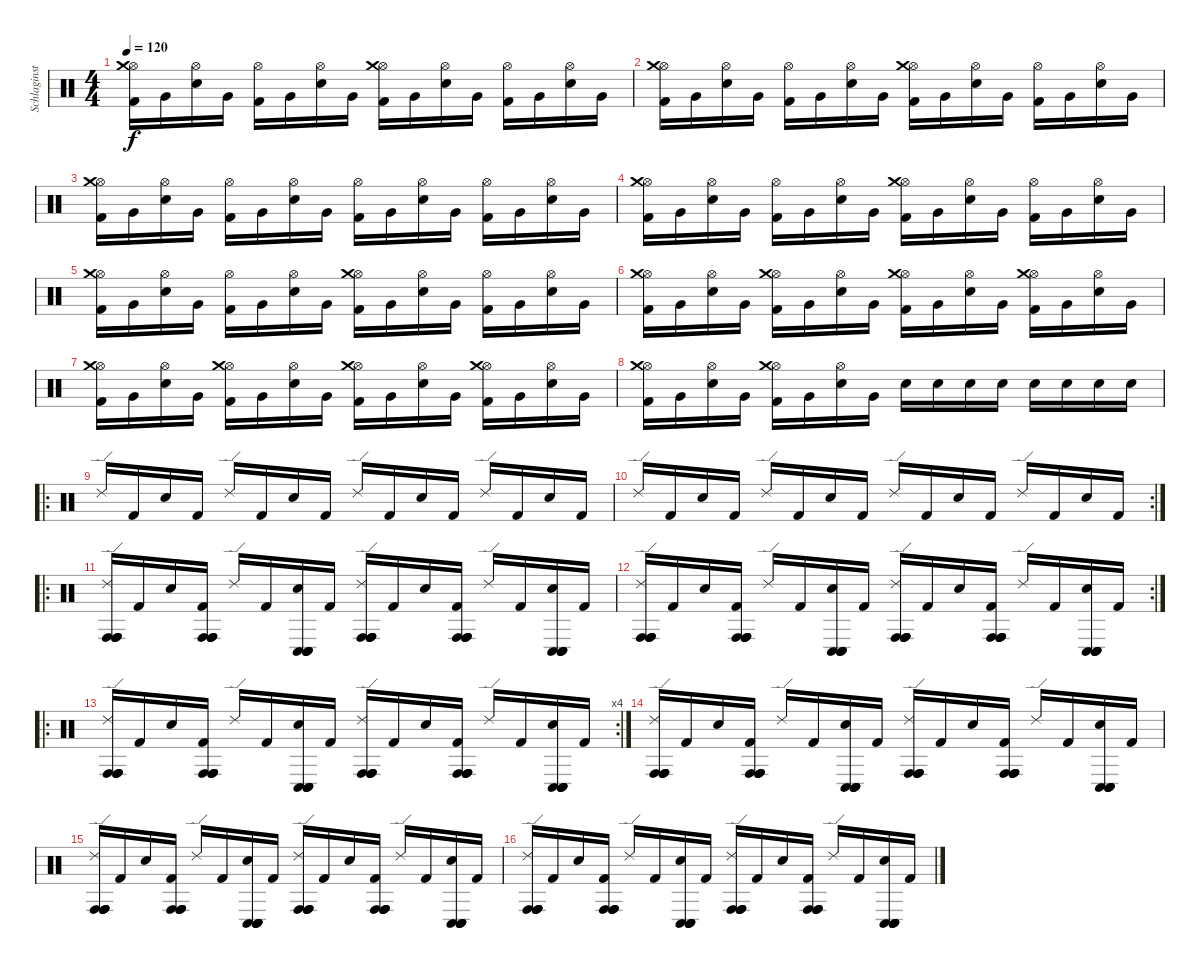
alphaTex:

\track ("Schlaginstrumente - Auswahl" "Schlaginst") {instrument percussion}
\staff {score}
\articulation defaults
\ts (4 4)
\tempo 120
\clef neutral
\ks c
("Kick (hit) 2" "Hi-Hat (open)" "Crash medium (hit)").16{dy f} "Very Low Tom (hit)".16 ("Electric Snare (hit)" "Hi-Hat (open)").16 "Very Low Tom (hit)".16 ("Kick (hit) 2" "Hi-Hat (open)").16 "Very Low Tom (hit)".16 ("Electric Snare (hit)" "Hi-Hat (open)").16 "Very Low Tom (hit)".16 ("Kick (hit) 2" "Hi-Hat (open)" "Crash medium (hit)").16 "Very Low Tom (hit)".16 ("Electric Snare (hit)" "Hi-Hat (open)").16 "Very Low Tom (hit)".16 ("Kick (hit) 2" "Hi-Hat (open)").16 "Very Low Tom (hit)".16 ("Electric Snare (hit)" "Hi-Hat (open)").16 "Very Low Tom (hit)".16 |
("Kick (hit) 2" "Hi-Hat (open)" "Crash medium (hit)").16 "Very Low Tom (hit)".16 ("Electric Snare (hit)" "Hi-Hat (open)").16 "Very Low Tom (hit)".16 ("Kick (hit) 2" "Hi-Hat (open)").16 "Very Low Tom (hit)".16 ("Electric Snare (hit)" "Hi-Hat (open)").16 "Very Low Tom (hit)".16 ("Kick (hit) 2" "Hi-Hat (open)" "Crash medium (hit)").16 "Very Low Tom (hit)".16 ("Electric Snare (hit)" "Hi-Hat (open)").16 "Very Low Tom (hit)".16 ("Kick (hit) 2" "Hi-Hat (open)").16 "Very Low Tom (hit)".16 ("Electric Snare (hit)" "Hi-Hat (open)").16 "Very Low Tom (hit)".16 |
("Kick (hit) 2" "Hi-Hat (open)" "Crash medium (hit)").16 "Very Low Tom (hit)".16 ("Electric Snare (hit)" "Hi-Hat (open)").16 "Very Low Tom (hit)".16 ("Kick (hit) 2" "Hi-Hat (open)").16 "Very Low Tom (hit)".16 ("Electric Snare (hit)" "Hi-Hat (open)").16 "Very Low Tom (hit)".16 ("Kick (hit) 2" "Hi-Hat (open)").16 "Very Low Tom (hit)".16 ("Electric Snare (hit)" "Hi-Hat (open)").16 "Very Low Tom (hit)".16 ("Kick (hit) 2" "Hi-Hat (open)").16 "Very Low Tom (hit)".16 ("Electric Snare (hit)" "Hi-Hat (open)").16 "Very Low Tom (hit)".16 |
("Kick (hit) 2" "Hi-Hat (open)" "Crash medium (hit)").16 "Very Low Tom (hit)".16 ("Electric Snare (hit)" "Hi-Hat (open)").16 "Very Low Tom (hit)".16 ("Kick (hit) 2" "Hi-Hat (open)").16 "Very Low Tom (hit)".16 ("Electric Snare (hit)" "Hi-Hat (open)").16 "Very Low Tom (hit)".16 ("Kick (hit) 2" "Hi-Hat (open)" "Crash medium (hit)").16 "Very Low Tom (hit)".16 ("Electric Snare (hit)" "Hi-Hat (open)").16 "Very Low Tom (hit)".16 ("Kick (hit) 2" "Hi-Hat (open)").16 "Very Low Tom (hit)".16 ("Electric Snare (hit)" "Hi-Hat (open)").16 "Very Low Tom (hit)".16 |
("Kick (hit) 2" "Hi-Hat (open)" "Crash medium (hit)").16 "Very Low Tom (hit)".16 ("Electric Snare (hit)" "Hi-Hat (open)").16 "Very Low Tom (hit)".16 ("Kick (hit) 2" "Hi-Hat (open)").16 "Very Low Tom (hit)".16 ("Electric Snare (hit)" "Hi-Hat (open)").16 "Very Low Tom (hit)".16 ("Kick (hit) 2" "Hi-Hat (open)" "Crash medium (hit)").16 "Very Low Tom (hit)".16 ("Electric Snare (hit)" "Hi-Hat (open)").16 "Very Low Tom (hit)".16 ("Kick (hit) 2" "Hi-Hat (open)").16 "Very Low Tom (hit)".16 ("Electric Snare (hit)" "Hi-Hat (open)").16 "Very Low Tom (hit)".16 |
("Kick (hit) 2" "Hi-Hat (open)" "Crash medium (hit)").16 "Very Low Tom (hit)".16 ("Electric Snare (hit)" "Hi-Hat (open)").16 "Very Low Tom (hit)".16 ("Kick (hit) 2" "Hi-Hat (open)" "Crash medium (hit)").16 "Very Low Tom (hit)".16 ("Electric Snare (hit)" "Hi-Hat (open)").16 "Very Low Tom (hit)".16 ("Kick (hit) 2" "Hi-Hat (open)" "Crash medium (hit)").16 "Very Low Tom (hit)".16 ("Electric Snare (hit)" "Hi-Hat (open)").16 "Very Low Tom (hit)".16 ("Kick (hit) 2" "Hi-Hat (open)" "Crash medium (hit)").16 "Very Low Tom (hit)".16 ("Electric Snare (hit)" "Hi-Hat (open)").16 "Very Low Tom (hit)".16 |
("Kick (hit) 2" "Hi-Hat (open)" "Crash medium (hit)").16 "Very Low Tom (hit)".16 ("Electric Snare (hit)" "Hi-Hat (open)").16 "Very Low Tom (hit)".16 ("Kick (hit) 2" "Hi-Hat (open)" "Crash medium (hit)").16 "Very Low Tom (hit)".16 ("Electric Snare (hit)" "Hi-Hat (open)").16 "Very Low Tom (hit)".16 ("Kick (hit) 2" "Hi-Hat (open)" "Crash medium (hit)").16 "Very Low Tom (hit)".16 ("Electric Snare (hit)" "Hi-Hat (open)").16 "Very Low Tom (hit)".16 ("Kick (hit) 2" "Hi-Hat (open)" "Crash medium (hit)").16 "Very Low Tom (hit)".16 ("Electric Snare (hit)" "Hi-Hat (open)").16 "Very Low Tom (hit)".16 |
("Kick (hit) 2" "Hi-Hat (open)" "Crash medium (hit)").16 "Very Low Tom (hit)".16 ("Electric Snare (hit)" "Hi-Hat (open)").16 "Very Low Tom (hit)".16 ("Kick (hit) 2" "Hi-Hat (open)" "Crash medium (hit)").16 "Very Low Tom (hit)".16 ("Electric Snare (hit)" "Hi-Hat (open)").16 "Very Low Tom (hit)".16 "Electric Snare (hit)".16 "Electric Snare (hit)".16 "Electric Snare (hit)".16 "Electric Snare (hit)".16 "Electric Snare (hit)".16 "Electric Snare (hit)".16 "Electric Snare (hit)".16 "Electric Snare (hit)".16 |
\ro "Ride (edge) 2".16 "Kick (hit) 2".16 "Electric Snare (hit)".16 "Kick (hit) 2".16 "Ride (edge) 2".16 "Kick (hit) 2".16 "Electric Snare (hit)".16 "Kick (hit) 2".16 "Ride (edge) 2".16 "Kick (hit) 2".16 "Electric Snare (hit)".16 "Kick (hit) 2".16 "Ride (edge) 2".16 "Kick (hit) 2".16 "Electric Snare (hit)".16 "Kick (hit) 2".16
|
\rc 2 "Ride (edge) 2".16 "Kick (hit) 2".16 "Electric Snare (hit)".16 "Kick (hit) 2".16 "Ride (edge) 2".16 "Kick (hit) 2".16 "Electric Snare (hit)".16 "Kick (hit) 2".16 "Ride (edge) 2".16 "Kick (hit) 2".16 "Electric Snare (hit)".16 "Kick (hit) 2".16 "Ride (edge) 2".16 "Kick (hit) 2".16 "Electric Snare (hit)".16 "Kick (hit) 2".16
|
\ro
("Conga high (hit)" "Ride (edge) 2" "Conga high (hit)" "Conga high (hit)" "Conga high (hit)").16 "Kick (hit) 2".16 "Electric Snare (hit)".16 ("Kick (hit) 2" "Conga high (hit)" "Conga high (hit)" "Conga high (hit)" "Conga high (hit)").16 "Ride (edge) 2".16 "Kick (hit) 2".16 ("Electric Snare (hit)" "Conga low (hit)" "Conga low (hit)" "Conga low (hit)" "Conga low (hit)").16 "Kick (hit) 2".16 ("Conga high (hit)" "Ride (edge) 2" "Conga high (hit)" "Conga high (hit)" "Conga high (hit)").16 "Kick (hit) 2".16 "Electric Snare (hit)".16 ("Kick (hit) 2" "Conga high (hit)" "Conga high (hit)" "Conga high (hit)" "Conga high (hit)").16 "Ride (edge) 2".16 "Kick (hit) 2".16 ("Electric Snare (hit)" "Conga low (hit)" "Conga low (hit)" "Conga low (hit)" "Conga low (hit)").16 "Kick (hit) 2".16 |
\rc 2
("Conga high (hit)" "Ride (edge) 2" "Conga high (hit)" "Conga high (hit)" "Conga high (hit)").16 "Kick (hit) 2".16 "Electric Snare (hit)".16 ("Kick (hit) 2" "Conga high (hit)" "Conga high (hit)" "Conga high (hit)" "Conga high (hit)").16 "Ride (edge) 2".16 "Kick (hit) 2".16 ("Electric Snare (hit)" "Conga low (hit)" "Conga low (hit)" "Conga low (hit)" "Conga low (hit)").16 "Kick (hit) 2".16 ("Conga high (hit)" "Ride (edge) 2" "Conga high (hit)" "Conga high (hit)" "Conga high (hit)").16 "Kick (hit) 2".16 "Electric Snare (hit)".16 ("Kick (hit) 2" "Conga high (hit)" "Conga high (hit)" "Conga high (hit)" "Conga high (hit)").16 "Ride (edge) 2".16 "Kick (hit) 2".16 ("Electric Snare (hit)" "Conga low (hit)" "Conga low (hit)" "Conga low (hit)" "Conga low (hit)").16 "Kick (hit) 2".16 |
\ro
\rc 4
("Conga high (hit)" "Ride (edge) 2" "Conga high (hit)" "Conga high (hit)" "Conga high (hit)").16 "Kick (hit) 2".16 "Electric Snare (hit)".16 ("Kick (hit) 2" "Conga high (hit)" "Conga high (hit)" "Conga high (hit)" "Conga high (hit)").16 "Ride (edge) 2".16 "Kick (hit) 2".16 ("Electric Snare (hit)" "Conga low (hit)" "Conga low (hit)" "Conga low (hit)" "Conga low (hit)").16 "Kick (hit) 2".16 ("Conga high (hit)" "Ride (edge) 2" "Conga high (hit)" "Conga high (hit)" "Conga high (hit)").16 "Kick (hit) 2".16 "Electric Snare (hit)".16 ("Kick (hit) 2" "Conga high (hit)" "Conga high (hit)" "Conga high (hit)" "Conga high (hit)").16 "Ride (edge) 2".16 "Kick (hit) 2".16 ("Electric Snare (hit)" "Conga low (hit)" "Conga low (hit)" "Conga low (hit)" "Conga low (hit)").16 "Kick (hit) 2".16 |
("Conga high (hit)" "Ride (edge) 2" "Conga high (hit)" "Conga high (hit)" "Conga high (hit)").16 "Kick (hit) 2".16 "Electric Snare (hit)".16 ("Kick (hit) 2" "Conga high (hit)" "Conga high (hit)" "Conga high (hit)" "Conga high (hit)").16 "Ride (edge) 2".16 "Kick (hit) 2".16 ("Electric Snare (hit)" "Conga low (hit)" "Conga low (hit)" "Conga low (hit)" "Conga low (hit)").16 "Kick (hit) 2".16 ("Conga high (hit)" "Ride (edge) 2" "Conga high (hit)" "Conga high (hit)" "Conga high (hit)").16 "Kick (hit) 2".16 "Electric Snare (hit)".16 ("Kick (hit) 2" "Conga high (hit)" "Conga high (hit)" "Conga high (hit)" "Conga high (hit)").16 "Ride (edge) 2".16 "Kick (hit) 2".16 ("Electric Snare (hit)" "Conga low (hit)" "Conga low (hit)" "Conga low (hit)" "Conga low (hit)").16 "Kick (hit) 2".16 |
("Conga high (hit)" "Ride (edge) 2" "Conga high (hit)" "Conga high (hit)" "Conga high (hit)").16 "Kick (hit) 2".16 "Electric Snare (hit)".16 ("Kick (hit) 2" "Conga high (hit)" "Conga high (hit)" "Conga high (hit)" "Conga high (hit)").16 "Ride (edge) 2".16 "Kick (hit) 2".16 ("Electric Snare (hit)" "Conga low (hit)" "Conga low (hit)" "Conga low (hit)" "Conga low (hit)").16 "Kick (hit) 2".16 ("Conga high (hit)" "Ride (edge) 2" "Conga high (hit)" "Conga high (hit)" "Conga high (hit)").16 "Kick (hit) 2".16 "Electric Snare (hit)".16 ("Kick (hit) 2" "Conga high (hit)" "Conga high (hit)" "Conga high (hit)" "Conga high (hit)").16 "Ride (edge) 2".16 "Kick (hit) 2".16 ("Electric Snare (hit)" "Conga low (hit)" "Conga low (hit)" "Conga low (hit)" "Conga low (hit)").16 "Kick (hit) 2".16 |
("Conga high (hit)" "Ride (edge) 2" "Conga high (hit)" "Conga high (hit)" "Conga high (hit)").16 "Kick (hit) 2".16 "Electric Snare (hit)".16 ("Kick (hit) 2" "Conga high (hit)" "Conga high (hit)" "Conga high (hit)" "Conga high (hit)").16 "Ride (edge) 2".16 "Kick (hit) 2".16 ("Electric Snare (hit)" "Conga low (hit)" "Conga low (hit)" "Conga low (hit)" "Conga low (hit)").16 "Kick (hit) 2".16 ("Conga high (hit)" "Ride (edge) 2" "Conga high (hit)" "Conga high (hit)" "Conga high (hit)").16 "Kick (hit) 2".16 "Electric Snare (hit)".16 ("Kick (hit) 2" "Conga high (hit)" "Conga high (hit)" "Conga high (hit)" "Conga high (hit)").16 "Ride (edge) 2".16 "Kick (hit) 2".16 ("Electric Snare (hit)" "Conga low (hit)" "Conga low (hit)" "Conga low (hit)" "Conga low (hit)").16 "Kick (hit) 2".16
